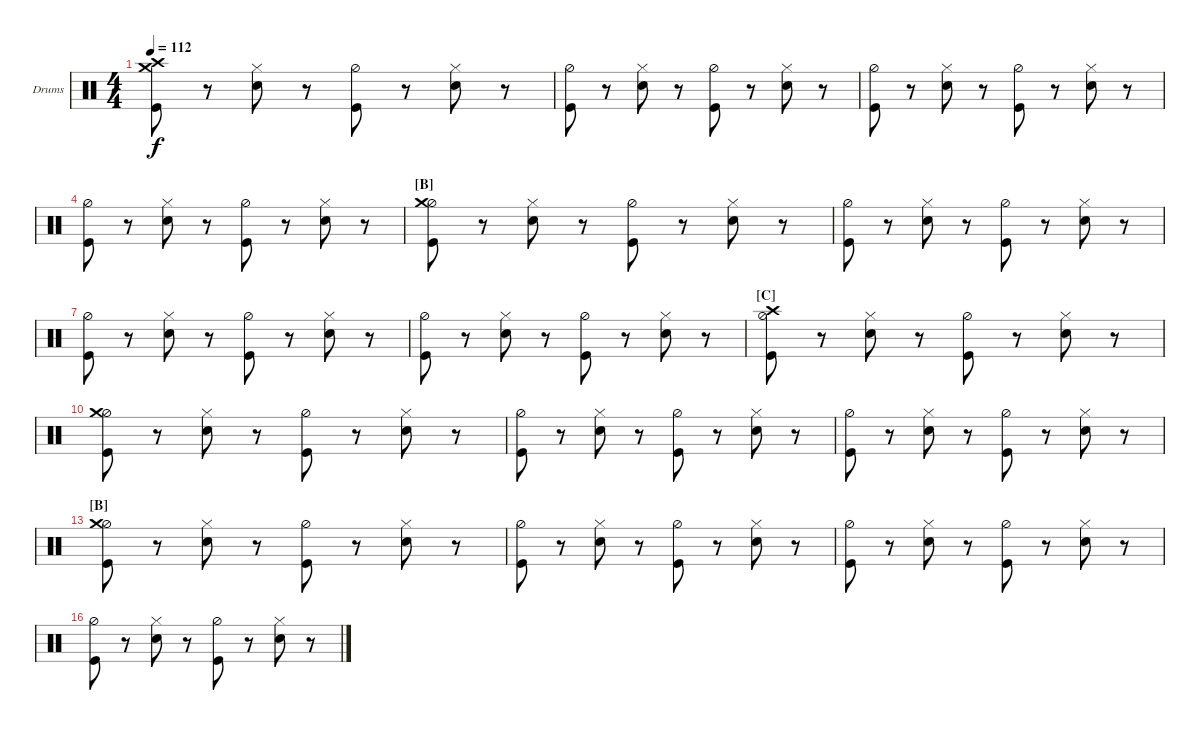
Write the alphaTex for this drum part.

\bracketExtendMode nobrackets
\firstSystemTrackNameOrientation horizontal
\otherSystemsTrackNameOrientation horizontal
\defaultBarNumberDisplay FirstOfSystem
\track ("Drumkit" "Drums") {instrument percussion}
\staff {score}
\articulation defaults
\ts (4 4)
\tempo 112
\clef neutral
\scale
0.333333
\ks c
("Kick (hit)" "Crash high (hit)" "Crash medium (hit)").8{dy f} r.8 ("Snare (hit) 2" "Hi-Hat (closed)").8 r.8 ("Kick (hit)" "Hi-Hat (half)").8 r.8 ("Snare (hit) 2" "Hi-Hat (closed)").8 r.8 |
\scale
0.333333 ("Kick (hit)" "Hi-Hat (half)").8 r.8 ("Snare (hit) 2" "Hi-Hat (closed)").8 r.8 ("Kick (hit)" "Hi-Hat (half)").8 r.8 ("Snare (hit) 2" "Hi-Hat (closed)").8 r.8 |
\scale
0.333333 ("Kick (hit)" "Hi-Hat (half)").8 r.8 ("Snare (hit) 2" "Hi-Hat (closed)").8 r.8 ("Kick (hit)" "Hi-Hat (half)").8 r.8 ("Snare (hit) 2" "Hi-Hat (closed)").8 r.8 |
\scale
0.333333 ("Kick (hit)" "Hi-Hat (half)").8 r.8 ("Snare (hit) 2" "Hi-Hat (closed)").8 r.8 ("Kick (hit)" "Hi-Hat (half)").8 r.8 ("Snare (hit) 2" "Hi-Hat (closed)").8 r.8 |
\section ("B" "")
("Kick (hit)" "Hi-Hat (half)" "Crash medium (hit)").8 r.8 ("Snare (hit) 2" "Hi-Hat (closed)").8 r.8 ("Kick (hit)" "Hi-Hat (half)").8 r.8 ("Snare (hit) 2" "Hi-Hat (closed)").8 r.8 |
("Kick (hit)" "Hi-Hat (half)").8 r.8 ("Snare (hit) 2" "Hi-Hat (closed)").8 r.8 ("Kick (hit)" "Hi-Hat (half)").8 r.8 ("Snare (hit) 2" "Hi-Hat (closed)").8 r.8 |
("Kick (hit)" "Hi-Hat (half)").8 r.8 ("Snare (hit) 2" "Hi-Hat (closed)").8 r.8 ("Kick (hit)" "Hi-Hat (half)").8 r.8 ("Snare (hit) 2" "Hi-Hat (closed)").8 r.8 |
("Kick (hit)" "Hi-Hat (half)").8 r.8 ("Snare (hit) 2" "Hi-Hat (closed)").8 r.8 ("Kick (hit)" "Hi-Hat (half)").8 r.8 ("Snare (hit) 2" "Hi-Hat (closed)").8 r.8 |
\section ("C" "")
("Kick (hit)" "Hi-Hat (half)" "Crash high (hit)").8 r.8 ("Snare (hit) 2" "Hi-Hat (closed)").8 r.8 ("Kick (hit)" "Hi-Hat (half)").8 r.8 ("Snare (hit) 2" "Hi-Hat (closed)").8 r.8 |
("Kick (hit)" "Hi-Hat (half)" "Crash medium (hit)").8 r.8 ("Snare (hit) 2" "Hi-Hat (closed)").8 r.8 ("Kick (hit)" "Hi-Hat (half)").8 r.8 ("Snare (hit) 2" "Hi-Hat (closed)").8 r.8 |
("Kick (hit)" "Hi-Hat (half)").8 r.8 ("Snare (hit) 2" "Hi-Hat (closed)").8 r.8 ("Kick (hit)" "Hi-Hat (half)").8 r.8 ("Snare (hit) 2" "Hi-Hat (closed)").8 r.8 |
("Kick (hit)" "Hi-Hat (half)").8 r.8 ("Snare (hit) 2" "Hi-Hat (closed)").8 r.8 ("Kick (hit)" "Hi-Hat (half)").8 r.8 ("Snare (hit) 2" "Hi-Hat (closed)").8 r.8 |
\section ("B" "")
("Kick (hit)" "Hi-Hat (half)" "Crash medium (hit)").8 r.8 ("Snare (hit) 2" "Hi-Hat (closed)").8 r.8 ("Kick (hit)" "Hi-Hat (half)").8 r.8 ("Snare (hit) 2" "Hi-Hat (closed)").8 r.8 |
("Kick (hit)" "Hi-Hat (half)").8 r.8 ("Snare (hit) 2" "Hi-Hat (closed)").8 r.8 ("Kick (hit)" "Hi-Hat (half)").8 r.8 ("Snare (hit) 2" "Hi-Hat (closed)").8 r.8 |
("Kick (hit)" "Hi-Hat (half)").8 r.8 ("Snare (hit) 2" "Hi-Hat (closed)").8 r.8 ("Kick (hit)" "Hi-Hat (half)").8 r.8 ("Snare (hit) 2" "Hi-Hat (closed)").8 r.8 |
("Kick (hit)" "Hi-Hat (half)").8 r.8 ("Snare (hit) 2" "Hi-Hat (closed)").8 r.8 ("Kick (hit)" "Hi-Hat (half)").8 r.8 ("Snare (hit) 2" "Hi-Hat (closed)").8 r.8
